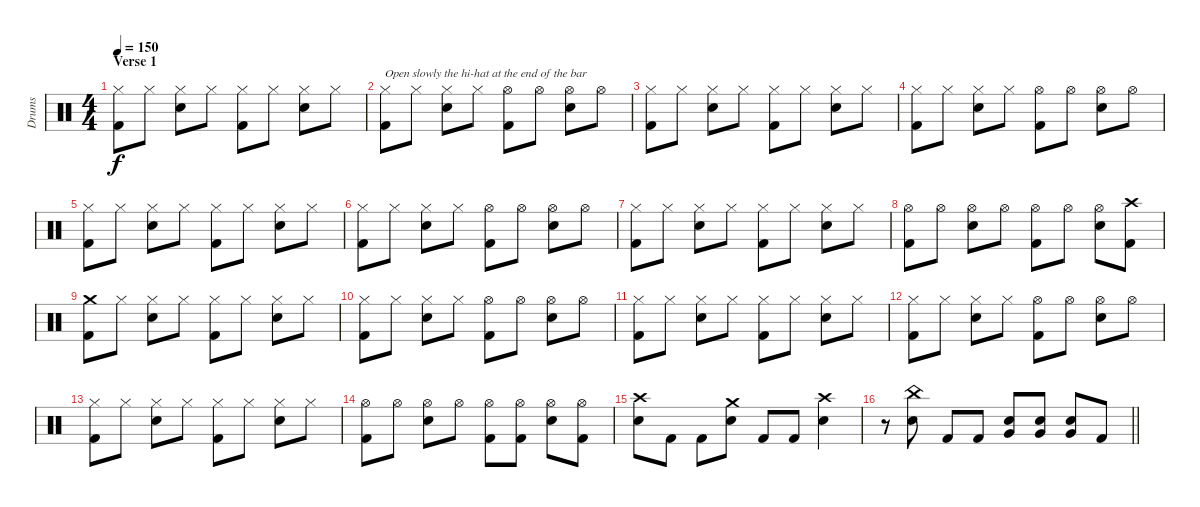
\track ("Drums" "Drums") {instrument percussion}
\staff {score}
\articulation defaults
\ts (4 4)
\section ("" "Verse 1")
\tempo 150
\clef neutral
\ks c
("Hi-Hat (closed)" "Kick (hit) 2").8{dy f} "Hi-Hat (closed)".8 ("Hi-Hat (closed)" "Electric Snare (hit)").8 "Hi-Hat (closed)".8 ("Hi-Hat (closed)" "Kick (hit) 2").8 "Hi-Hat (closed)".8 ("Hi-Hat (closed)" "Electric Snare (hit)").8 "Hi-Hat (closed)".8 |
("Hi-Hat (closed)" "Kick (hit) 2").8{txt "Open slowly the hi-hat at the end of the bar"} "Hi-Hat (closed)".8 ("Hi-Hat (closed)" "Electric Snare (hit)").8 "Hi-Hat (closed)".8 ("Hi-Hat (open)" "Kick (hit) 2").8 "Hi-Hat (open)".8 ("Hi-Hat (open)" "Electric Snare (hit)").8 "Hi-Hat (open)".8 |
("Hi-Hat (closed)" "Kick (hit) 2").8 "Hi-Hat (closed)".8 ("Hi-Hat (closed)" "Electric Snare (hit)").8 "Hi-Hat (closed)".8 ("Hi-Hat (closed)" "Kick (hit) 2").8 "Hi-Hat (closed)".8 ("Hi-Hat (closed)" "Electric Snare (hit)").8 "Hi-Hat (closed)".8 |
("Hi-Hat (closed)" "Kick (hit) 2").8 "Hi-Hat (closed)".8 ("Hi-Hat (closed)" "Electric Snare (hit)").8 "Hi-Hat (closed)".8 ("Hi-Hat (open)" "Kick (hit) 2").8 "Hi-Hat (open)".8 ("Hi-Hat (open)" "Electric Snare (hit)").8 "Hi-Hat (open)".8 |
("Hi-Hat (closed)" "Kick (hit) 2").8 "Hi-Hat (closed)".8 ("Hi-Hat (closed)" "Electric Snare (hit)").8 "Hi-Hat (closed)".8 ("Hi-Hat (closed)" "Kick (hit) 2").8 "Hi-Hat (closed)".8 ("Hi-Hat (closed)" "Electric Snare (hit)").8 "Hi-Hat (closed)".8 |
("Hi-Hat (closed)" "Kick (hit) 2").8 "Hi-Hat (closed)".8 ("Hi-Hat (closed)" "Electric Snare (hit)").8 "Hi-Hat (closed)".8 ("Hi-Hat (open)" "Kick (hit) 2").8 "Hi-Hat (open)".8 ("Hi-Hat (open)" "Electric Snare (hit)").8 "Hi-Hat (open)".8 |
("Hi-Hat (closed)" "Kick (hit) 2").8 "Hi-Hat (closed)".8 ("Hi-Hat (closed)" "Electric Snare (hit)").8 "Hi-Hat (closed)".8 ("Hi-Hat (closed)" "Kick (hit) 2").8 "Hi-Hat (closed)".8 ("Hi-Hat (closed)" "Electric Snare (hit)").8 "Hi-Hat (closed)".8 |
("Hi-Hat (open)" "Kick (hit) 2").8 "Hi-Hat (open)".8 ("Hi-Hat (open)" "Electric Snare (hit)").8 "Hi-Hat (open)".8 ("Hi-Hat (open)" "Kick (hit) 2").8 "Hi-Hat (open)".8 ("Hi-Hat (open)" "Electric Snare (hit)").8 ("Crash high (hit)" "Kick (hit) 2").8 |
("Crash medium (hit)" "Kick (hit) 2").8 "Hi-Hat (closed)".8 ("Hi-Hat (closed)" "Electric Snare (hit)").8 "Hi-Hat (closed)".8 ("Hi-Hat (closed)" "Kick (hit) 2").8 "Hi-Hat (closed)".8 ("Hi-Hat (closed)" "Electric Snare (hit)").8 "Hi-Hat (closed)".8 |
("Hi-Hat (closed)" "Kick (hit) 2").8 "Hi-Hat (closed)".8 ("Hi-Hat (closed)" "Electric Snare (hit)").8 "Hi-Hat (closed)".8 ("Hi-Hat (open)" "Kick (hit) 2").8 "Hi-Hat (open)".8 ("Hi-Hat (open)" "Electric Snare (hit)").8 "Hi-Hat (open)".8 |
("Hi-Hat (closed)" "Kick (hit) 2").8 "Hi-Hat (closed)".8 ("Hi-Hat (closed)" "Electric Snare (hit)").8 "Hi-Hat (closed)".8 ("Hi-Hat (closed)" "Kick (hit) 2").8 "Hi-Hat (closed)".8 ("Hi-Hat (closed)" "Electric Snare (hit)").8 "Hi-Hat (closed)".8 |
("Hi-Hat (closed)" "Kick (hit) 2").8 "Hi-Hat (closed)".8 ("Hi-Hat (closed)" "Electric Snare (hit)").8 "Hi-Hat (closed)".8 ("Hi-Hat (open)" "Kick (hit) 2").8 "Hi-Hat (open)".8 ("Hi-Hat (open)" "Electric Snare (hit)").8 "Hi-Hat (open)".8 |
("Hi-Hat (closed)" "Kick (hit) 2").8 "Hi-Hat (closed)".8 ("Hi-Hat (closed)" "Electric Snare (hit)").8 "Hi-Hat (closed)".8 ("Hi-Hat (closed)" "Kick (hit) 2").8 "Hi-Hat (closed)".8 ("Hi-Hat (closed)" "Electric Snare (hit)").8 "Hi-Hat (closed)".8 |
("Hi-Hat (open)" "Kick (hit) 2").8 "Hi-Hat (open)".8 ("Hi-Hat (open)" "Electric Snare (hit)").8 "Hi-Hat (open)".8 ("Hi-Hat (open)" "Kick (hit) 2").8 ("Hi-Hat (open)" "Kick (hit) 2").8 ("Hi-Hat (open)" "Electric Snare (hit)").8 ("Hi-Hat (open)" "Kick (hit) 2").8 |
("Crash high (hit)" "Electric Snare (hit)").8 "Kick (hit) 2".8 "Kick (hit) 2".8 ("Crash medium (hit)" "Electric Snare (hit)").8 "Kick (hit) 2".8 "Kick (hit) 2".8 ("Crash high (hit)" "Electric Snare (hit)").4 |
\barLineRight lightlight
r.8 ("China (hit)" "Electric Snare (hit)").8 "Kick (hit) 2".8 "Kick (hit) 2".8 ("Very Low Tom (hit)" "Electric Snare (hit)").8 ("Very Low Tom (hit)" "Electric Snare (hit)").8 ("Very Low Tom (hit)" "Electric Snare (hit)").8 "Kick (hit) 2".8
